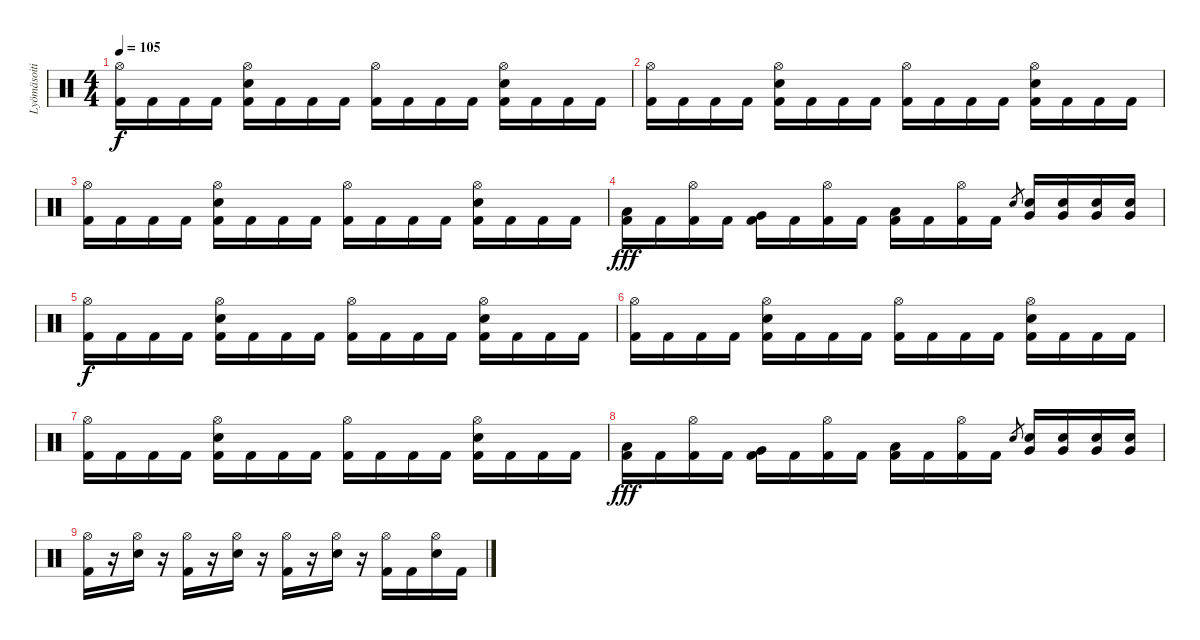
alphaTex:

\track ("Lyömäsoitin" "Lyömäsoiti") {instrument percussion}
\staff {score}
\articulation defaults
\ts (4 4)
\tempo 105
\clef neutral
\ks c
("Hi-Hat (open)" "Kick (hit) 2").16{dy f} "Kick (hit) 2".16 "Kick (hit) 2".16 "Kick (hit) 2".16 ("Hi-Hat (open)" "Electric Snare (hit)" "Kick (hit) 2").16 "Kick (hit) 2".16 "Kick (hit) 2".16 "Kick (hit) 2".16 ("Hi-Hat (open)" "Kick (hit) 2").16 "Kick (hit) 2".16 "Kick (hit) 2".16 "Kick (hit) 2".16 ("Electric Snare (hit)" "Hi-Hat (open)" "Kick (hit) 2").16 "Kick (hit) 2".16 "Kick (hit) 2".16 "Kick (hit) 2".16 |
("Hi-Hat (open)" "Kick (hit) 2").16 "Kick (hit) 2".16 "Kick (hit) 2".16 "Kick (hit) 2".16 ("Hi-Hat (open)" "Electric Snare (hit)" "Kick (hit) 2").16 "Kick (hit) 2".16 "Kick (hit) 2".16 "Kick (hit) 2".16 ("Hi-Hat (open)" "Kick (hit) 2").16 "Kick (hit) 2".16 "Kick (hit) 2".16 "Kick (hit) 2".16 ("Electric Snare (hit)" "Hi-Hat (open)" "Kick (hit) 2").16 "Kick (hit) 2".16 "Kick (hit) 2".16 "Kick (hit) 2".16 |
("Hi-Hat (open)" "Kick (hit) 2").16 "Kick (hit) 2".16 "Kick (hit) 2".16 "Kick (hit) 2".16 ("Hi-Hat (open)" "Electric Snare (hit)" "Kick (hit) 2").16 "Kick (hit) 2".16 "Kick (hit) 2".16 "Kick (hit) 2".16 ("Hi-Hat (open)" "Kick (hit) 2").16 "Kick (hit) 2".16 "Kick (hit) 2".16 "Kick (hit) 2".16 ("Electric Snare (hit)" "Hi-Hat (open)" "Kick (hit) 2").16 "Kick (hit) 2".16 "Kick (hit) 2".16 "Kick (hit) 2".16 |
("Kick (hit) 2" "Low Tom (hit)").16{dy fff} "Kick (hit) 2".16 ("Hi-Hat (open)" "Kick (hit) 2").16 "Kick (hit) 2".16 ("Very Low Tom (hit)" "Kick (hit) 2").16 "Kick (hit) 2".16 ("Hi-Hat (open)" "Kick (hit) 2").16 "Kick (hit) 2".16 ("Low Tom (hit)" "Kick (hit) 2").16 "Kick (hit) 2".16 ("Hi-Hat (open)" "Kick (hit) 2").16 "Kick (hit) 2".16 "Electric Snare (hit)".8{gr} ("Electric Snare (hit)" "Very Low Tom (hit)").16 ("Electric Snare (hit)" "Very Low Tom (hit)").16 ("Electric Snare (hit)" "Very Low Tom (hit)").16 ("Electric Snare (hit)" "Very Low Tom (hit)").16 |
("Hi-Hat (open)" "Kick (hit) 2").16{dy f} "Kick (hit) 2".16 "Kick (hit) 2".16 "Kick (hit) 2".16 ("Hi-Hat (open)" "Electric Snare (hit)" "Kick (hit) 2").16 "Kick (hit) 2".16 "Kick (hit) 2".16 "Kick (hit) 2".16 ("Hi-Hat (open)" "Kick (hit) 2").16 "Kick (hit) 2".16 "Kick (hit) 2".16 "Kick (hit) 2".16 ("Electric Snare (hit)" "Hi-Hat (open)" "Kick (hit) 2").16 "Kick (hit) 2".16 "Kick (hit) 2".16 "Kick (hit) 2".16 |
("Hi-Hat (open)" "Kick (hit) 2").16 "Kick (hit) 2".16 "Kick (hit) 2".16 "Kick (hit) 2".16 ("Hi-Hat (open)" "Electric Snare (hit)" "Kick (hit) 2").16 "Kick (hit) 2".16 "Kick (hit) 2".16 "Kick (hit) 2".16 ("Hi-Hat (open)" "Kick (hit) 2").16 "Kick (hit) 2".16 "Kick (hit) 2".16 "Kick (hit) 2".16 ("Electric Snare (hit)" "Hi-Hat (open)" "Kick (hit) 2").16 "Kick (hit) 2".16 "Kick (hit) 2".16 "Kick (hit) 2".16 |
("Hi-Hat (open)" "Kick (hit) 2").16 "Kick (hit) 2".16 "Kick (hit) 2".16 "Kick (hit) 2".16 ("Hi-Hat (open)" "Electric Snare (hit)" "Kick (hit) 2").16 "Kick (hit) 2".16 "Kick (hit) 2".16 "Kick (hit) 2".16 ("Hi-Hat (open)" "Kick (hit) 2").16 "Kick (hit) 2".16 "Kick (hit) 2".16 "Kick (hit) 2".16 ("Electric Snare (hit)" "Hi-Hat (open)" "Kick (hit) 2").16 "Kick (hit) 2".16 "Kick (hit) 2".16 "Kick (hit) 2".16 |
("Kick (hit) 2" "Low Tom (hit)").16{dy fff} "Kick (hit) 2".16 ("Hi-Hat (open)" "Kick (hit) 2").16 "Kick (hit) 2".16 ("Very Low Tom (hit)" "Kick (hit) 2").16 "Kick (hit) 2".16 ("Hi-Hat (open)" "Kick (hit) 2").16 "Kick (hit) 2".16 ("Low Tom (hit)" "Kick (hit) 2").16 "Kick (hit) 2".16 ("Hi-Hat (open)" "Kick (hit) 2").16 "Kick (hit) 2".16 "Electric Snare (hit)".8{gr} ("Electric Snare (hit)" "Very Low Tom (hit)").16 ("Electric Snare (hit)" "Very Low Tom (hit)").16 ("Electric Snare (hit)" "Very Low Tom (hit)").16 ("Electric Snare (hit)" "Very Low Tom (hit)").16 |
("Hi-Hat (open)" "Kick (hit) 2").16 r.16 ("Hi-Hat (open)" "Electric Snare (hit)").16 r.16 ("Hi-Hat (open)" "Kick (hit) 2").16 r.16 ("Hi-Hat (open)" "Electric Snare (hit)").16 r.16 ("Hi-Hat (open)" "Kick (hit) 2").16 r.16 ("Hi-Hat (open)" "Electric Snare (hit)").16 r.16 ("Hi-Hat (open)" "Kick (hit) 2").16 "Kick (hit) 2".16 ("Hi-Hat (open)" "Electric Snare (hit)").16 "Kick (hit) 2".16
